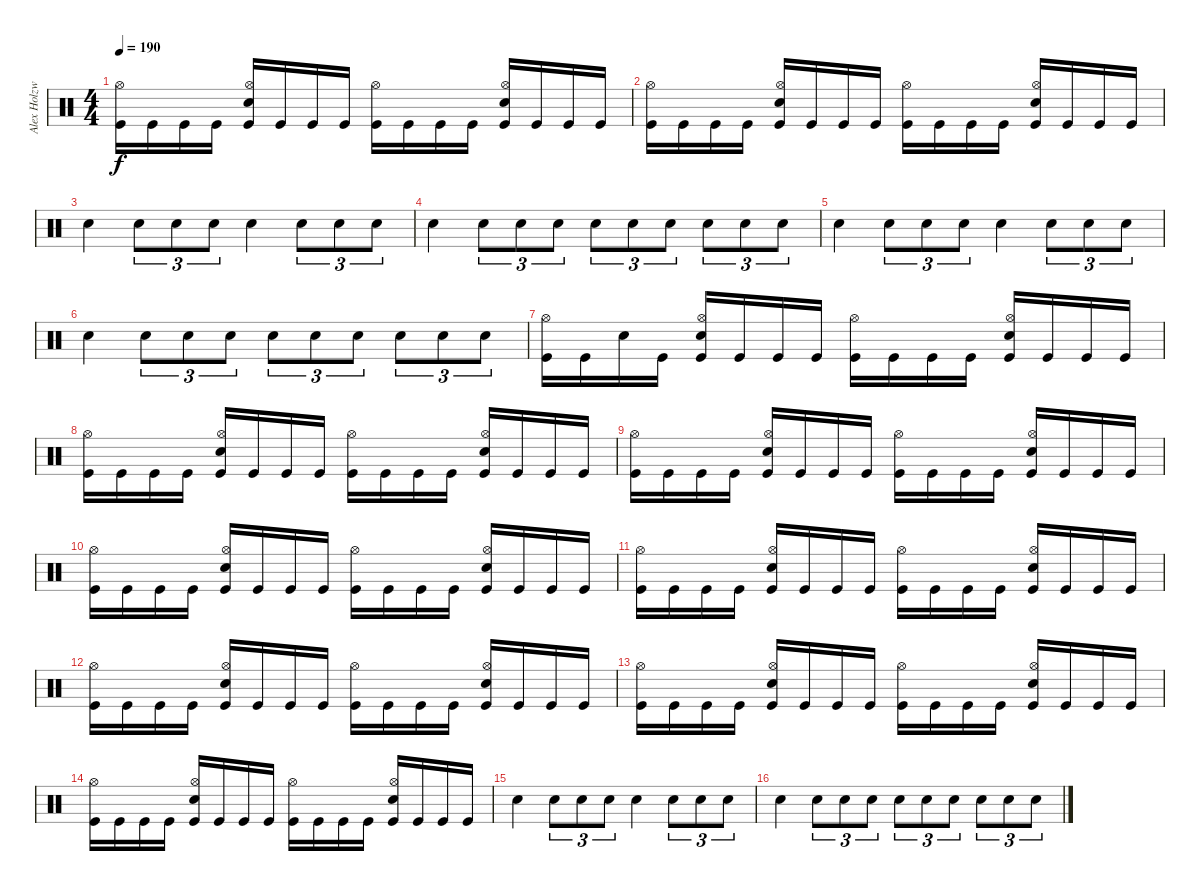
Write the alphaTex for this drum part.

\track ("Alex Holzwarth" "Alex Holzw") {instrument percussion}
\staff {score}
\articulation defaults
\ts (4 4)
\tempo 190
\clef neutral
\ks c
("Kick (hit)" "Hi-Hat (open)").16{dy f} "Kick (hit)".16 "Kick (hit)".16 "Kick (hit)".16 ("Kick (hit)" "Electric Snare (hit)" "Hi-Hat (open)").16 "Kick (hit)".16 "Kick (hit)".16 "Kick (hit)".16 ("Kick (hit)" "Hi-Hat (open)").16 "Kick (hit)".16 "Kick (hit)".16 "Kick (hit)".16 ("Kick (hit)" "Electric Snare (hit)" "Hi-Hat (open)").16 "Kick (hit)".16 "Kick (hit)".16 "Kick (hit)".16 |
("Kick (hit)" "Hi-Hat (open)").16 "Kick (hit)".16 "Kick (hit)".16 "Kick (hit)".16 ("Kick (hit)" "Electric Snare (hit)" "Hi-Hat (open)").16 "Kick (hit)".16 "Kick (hit)".16 "Kick (hit)".16 ("Kick (hit)" "Hi-Hat (open)").16 "Kick (hit)".16 "Kick (hit)".16 "Kick (hit)".16 ("Kick (hit)" "Electric Snare (hit)" "Hi-Hat (open)").16 "Kick (hit)".16 "Kick (hit)".16 "Kick (hit)".16 |
"Electric Snare (hit)".4 "Electric Snare (hit)".8{tu (3 2)} "Electric Snare (hit)".8{tu (3 2)} "Electric Snare (hit)".8{tu (3 2)} "Electric Snare (hit)".4 "Electric Snare (hit)".8{tu (3 2)} "Electric Snare (hit)".8{tu (3 2)} "Electric Snare (hit)".8{tu (3 2)} |
"Electric Snare (hit)".4 "Electric Snare (hit)".8{tu (3 2)} "Electric Snare (hit)".8{tu (3 2)} "Electric Snare (hit)".8{tu (3 2)} "Electric Snare (hit)".8{tu (3 2)} "Electric Snare (hit)".8{tu (3 2)} "Electric Snare (hit)".8{tu (3 2)} "Electric Snare (hit)".8{tu (3 2)} "Electric Snare (hit)".8{tu (3 2)} "Electric Snare (hit)".8{tu (3 2)} |
"Electric Snare (hit)".4 "Electric Snare (hit)".8{tu (3 2)} "Electric Snare (hit)".8{tu (3 2)} "Electric Snare (hit)".8{tu (3 2)} "Electric Snare (hit)".4 "Electric Snare (hit)".8{tu (3 2)} "Electric Snare (hit)".8{tu (3 2)} "Electric Snare (hit)".8{tu (3 2)} |
"Electric Snare (hit)".4 "Electric Snare (hit)".8{tu (3 2)} "Electric Snare (hit)".8{tu (3 2)} "Electric Snare (hit)".8{tu (3 2)} "Electric Snare (hit)".8{tu (3 2)} "Electric Snare (hit)".8{tu (3 2)} "Electric Snare (hit)".8{tu (3 2)} "Electric Snare (hit)".8{tu (3 2)} "Electric Snare (hit)".8{tu (3 2)} "Electric Snare (hit)".8{tu (3 2)} |
("Kick (hit)" "Hi-Hat (open)").16 "Kick (hit)".16 "Snare (hit)".16 "Kick (hit)".16 ("Kick (hit)" "Electric Snare (hit)" "Hi-Hat (open)").16 "Kick (hit)".16 "Kick (hit)".16 "Kick (hit)".16 ("Kick (hit)" "Hi-Hat (open)").16 "Kick (hit)".16 "Kick (hit)".16 "Kick (hit)".16 ("Kick (hit)" "Electric Snare (hit)" "Hi-Hat (open)").16 "Kick (hit)".16 "Kick (hit)".16 "Kick (hit)".16 |
("Kick (hit)" "Hi-Hat (open)").16 "Kick (hit)".16 "Kick (hit)".16 "Kick (hit)".16 ("Kick (hit)" "Electric Snare (hit)" "Hi-Hat (open)").16 "Kick (hit)".16 "Kick (hit)".16 "Kick (hit)".16 ("Kick (hit)" "Hi-Hat (open)").16 "Kick (hit)".16 "Kick (hit)".16 "Kick (hit)".16 ("Kick (hit)" "Electric Snare (hit)" "Hi-Hat (open)").16 "Kick (hit)".16 "Kick (hit)".16 "Kick (hit)".16 |
("Kick (hit)" "Hi-Hat (open)").16 "Kick (hit)".16 "Kick (hit)".16 "Kick (hit)".16 ("Kick (hit)" "Electric Snare (hit)" "Hi-Hat (open)").16 "Kick (hit)".16 "Kick (hit)".16 "Kick (hit)".16 ("Kick (hit)" "Hi-Hat (open)").16 "Kick (hit)".16 "Kick (hit)".16 "Kick (hit)".16 ("Kick (hit)" "Electric Snare (hit)" "Hi-Hat (open)").16 "Kick (hit)".16 "Kick (hit)".16 "Kick (hit)".16 |
("Kick (hit)" "Hi-Hat (open)").16 "Kick (hit)".16 "Kick (hit)".16 "Kick (hit)".16 ("Kick (hit)" "Electric Snare (hit)" "Hi-Hat (open)").16 "Kick (hit)".16 "Kick (hit)".16 "Kick (hit)".16 ("Kick (hit)" "Hi-Hat (open)").16 "Kick (hit)".16 "Kick (hit)".16 "Kick (hit)".16 ("Kick (hit)" "Electric Snare (hit)" "Hi-Hat (open)").16 "Kick (hit)".16 "Kick (hit)".16 "Kick (hit)".16 |
("Kick (hit)" "Hi-Hat (open)").16 "Kick (hit)".16 "Kick (hit)".16 "Kick (hit)".16 ("Kick (hit)" "Electric Snare (hit)" "Hi-Hat (open)").16 "Kick (hit)".16 "Kick (hit)".16 "Kick (hit)".16 ("Kick (hit)" "Hi-Hat (open)").16 "Kick (hit)".16 "Kick (hit)".16 "Kick (hit)".16 ("Kick (hit)" "Electric Snare (hit)" "Hi-Hat (open)").16 "Kick (hit)".16 "Kick (hit)".16 "Kick (hit)".16 |
("Kick (hit)" "Hi-Hat (open)").16 "Kick (hit)".16 "Kick (hit)".16 "Kick (hit)".16 ("Kick (hit)" "Electric Snare (hit)" "Hi-Hat (open)").16 "Kick (hit)".16 "Kick (hit)".16 "Kick (hit)".16 ("Kick (hit)" "Hi-Hat (open)").16 "Kick (hit)".16 "Kick (hit)".16 "Kick (hit)".16 ("Kick (hit)" "Electric Snare (hit)" "Hi-Hat (open)").16 "Kick (hit)".16 "Kick (hit)".16 "Kick (hit)".16 |
("Kick (hit)" "Hi-Hat (open)").16 "Kick (hit)".16 "Kick (hit)".16 "Kick (hit)".16 ("Kick (hit)" "Electric Snare (hit)" "Hi-Hat (open)").16 "Kick (hit)".16 "Kick (hit)".16 "Kick (hit)".16 ("Kick (hit)" "Hi-Hat (open)").16 "Kick (hit)".16 "Kick (hit)".16 "Kick (hit)".16 ("Kick (hit)" "Electric Snare (hit)" "Hi-Hat (open)").16 "Kick (hit)".16 "Kick (hit)".16 "Kick (hit)".16 |
("Kick (hit)" "Hi-Hat (open)").16 "Kick (hit)".16 "Kick (hit)".16 "Kick (hit)".16 ("Kick (hit)" "Electric Snare (hit)" "Hi-Hat (open)").16 "Kick (hit)".16 "Kick (hit)".16 "Kick (hit)".16 ("Kick (hit)" "Hi-Hat (open)").16 "Kick (hit)".16 "Kick (hit)".16 "Kick (hit)".16 ("Kick (hit)" "Electric Snare (hit)" "Hi-Hat (open)").16 "Kick (hit)".16 "Kick (hit)".16 "Kick (hit)".16 |
"Electric Snare (hit)".4 "Electric Snare (hit)".8{tu (3 2)} "Electric Snare (hit)".8{tu (3 2)} "Electric Snare (hit)".8{tu (3 2)} "Electric Snare (hit)".4 "Electric Snare (hit)".8{tu (3 2)} "Electric Snare (hit)".8{tu (3 2)} "Electric Snare (hit)".8{tu (3 2)} |
"Electric Snare (hit)".4 "Electric Snare (hit)".8{tu (3 2)} "Electric Snare (hit)".8{tu (3 2)} "Electric Snare (hit)".8{tu (3 2)} "Electric Snare (hit)".8{tu (3 2)} "Electric Snare (hit)".8{tu (3 2)} "Electric Snare (hit)".8{tu (3 2)} "Electric Snare (hit)".8{tu (3 2)} "Electric Snare (hit)".8{tu (3 2)} "Electric Snare (hit)".8{tu (3 2)}
